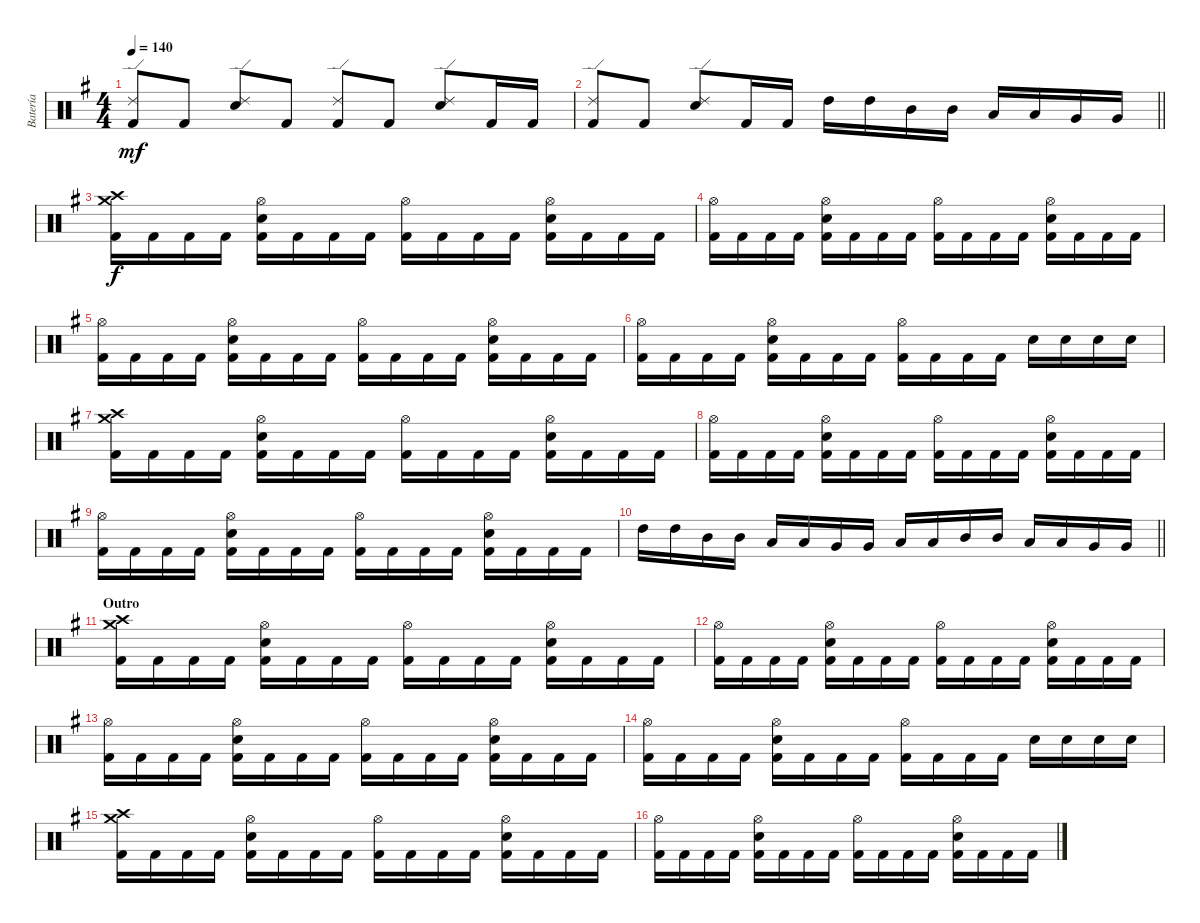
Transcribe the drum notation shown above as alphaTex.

\track ("Batería" "Batería") {instrument percussion}
\staff {score}
\articulation defaults
\ts (4 4)
\tempo 140
\clef neutral
\ks g
("Ride (edge) 2" "Kick (hit) 2").8{dy mf} "Kick (hit) 2".8 ("Ride (edge) 2" "Snare (hit) 2").8 "Kick (hit) 2".8 ("Ride (edge) 2" "Kick (hit) 2").8 "Kick (hit) 2".8 ("Ride (edge) 2" "Snare (hit) 2").8 "Kick (hit) 2".16 "Kick (hit) 2".16 |
\barLineRight lightlight
("Ride (edge) 2" "Kick (hit) 2").8 "Kick (hit) 2".8 ("Ride (edge) 2" "Snare (hit) 2").8 "Kick (hit) 2".16 "Kick (hit) 2".16 "High Tom (hit)".16 "High Tom (hit)".16 "Mid Tom (hit)".16 "Mid Tom (hit)".16 "Low Tom (hit)".16 "Low Tom (hit)".16 "Very Low Tom (hit)".16 "Very Low Tom (hit)".16 |
\section ("" "")
("Crash medium (hit)" "Crash high (hit)" "Kick (hit) 2").16{dy f} "Kick (hit) 2".16 "Kick (hit) 2".16 "Kick (hit) 2".16 ("Hi-Hat (open)" "Snare (hit) 2" "Kick (hit) 2").16 "Kick (hit) 2".16 "Kick (hit) 2".16 "Kick (hit) 2".16 ("Hi-Hat (open)" "Kick (hit) 2").16 "Kick (hit) 2".16 "Kick (hit) 2".16 "Kick (hit) 2".16 ("Hi-Hat (open)" "Snare (hit) 2" "Kick (hit) 2").16 "Kick (hit) 2".16 "Kick (hit) 2".16 "Kick (hit) 2".16 |
("Hi-Hat (open)" "Kick (hit) 2").16 "Kick (hit) 2".16 "Kick (hit) 2".16 "Kick (hit) 2".16 ("Hi-Hat (open)" "Snare (hit) 2" "Kick (hit) 2").16 "Kick (hit) 2".16 "Kick (hit) 2".16 "Kick (hit) 2".16 ("Hi-Hat (open)" "Kick (hit) 2").16 "Kick (hit) 2".16 "Kick (hit) 2".16 "Kick (hit) 2".16 ("Hi-Hat (open)" "Snare (hit) 2" "Kick (hit) 2").16 "Kick (hit) 2".16 "Kick (hit) 2".16 "Kick (hit) 2".16 |
("Hi-Hat (open)" "Kick (hit) 2").16 "Kick (hit) 2".16 "Kick (hit) 2".16 "Kick (hit) 2".16 ("Hi-Hat (open)" "Snare (hit) 2" "Kick (hit) 2").16 "Kick (hit) 2".16 "Kick (hit) 2".16 "Kick (hit) 2".16 ("Hi-Hat (open)" "Kick (hit) 2").16 "Kick (hit) 2".16 "Kick (hit) 2".16 "Kick (hit) 2".16 ("Hi-Hat (open)" "Snare (hit) 2" "Kick (hit) 2").16 "Kick (hit) 2".16 "Kick (hit) 2".16 "Kick (hit) 2".16 |
("Hi-Hat (open)" "Kick (hit) 2").16 "Kick (hit) 2".16 "Kick (hit) 2".16 "Kick (hit) 2".16 ("Hi-Hat (open)" "Snare (hit) 2" "Kick (hit) 2").16 "Kick (hit) 2".16 "Kick (hit) 2".16 "Kick (hit) 2".16 ("Hi-Hat (open)" "Kick (hit) 2").16 "Kick (hit) 2".16 "Kick (hit) 2".16 "Kick (hit) 2".16 "Snare (hit) 2".16 "Snare (hit) 2".16 "Snare (hit) 2".16 "Snare (hit) 2".16 |
("Crash medium (hit)" "Crash high (hit)" "Kick (hit) 2").16 "Kick (hit) 2".16 "Kick (hit) 2".16 "Kick (hit) 2".16 ("Hi-Hat (open)" "Snare (hit) 2" "Kick (hit) 2").16 "Kick (hit) 2".16 "Kick (hit) 2".16 "Kick (hit) 2".16 ("Hi-Hat (open)" "Kick (hit) 2").16 "Kick (hit) 2".16 "Kick (hit) 2".16 "Kick (hit) 2".16 ("Hi-Hat (open)" "Snare (hit) 2" "Kick (hit) 2").16 "Kick (hit) 2".16 "Kick (hit) 2".16 "Kick (hit) 2".16 |
("Hi-Hat (open)" "Kick (hit) 2").16 "Kick (hit) 2".16 "Kick (hit) 2".16 "Kick (hit) 2".16 ("Hi-Hat (open)" "Snare (hit) 2" "Kick (hit) 2").16 "Kick (hit) 2".16 "Kick (hit) 2".16 "Kick (hit) 2".16 ("Hi-Hat (open)" "Kick (hit) 2").16 "Kick (hit) 2".16 "Kick (hit) 2".16 "Kick (hit) 2".16 ("Hi-Hat (open)" "Snare (hit) 2" "Kick (hit) 2").16 "Kick (hit) 2".16 "Kick (hit) 2".16 "Kick (hit) 2".16 |
("Hi-Hat (open)" "Kick (hit) 2").16 "Kick (hit) 2".16 "Kick (hit) 2".16 "Kick (hit) 2".16 ("Hi-Hat (open)" "Snare (hit) 2" "Kick (hit) 2").16 "Kick (hit) 2".16 "Kick (hit) 2".16 "Kick (hit) 2".16 ("Hi-Hat (open)" "Kick (hit) 2").16 "Kick (hit) 2".16 "Kick (hit) 2".16 "Kick (hit) 2".16 ("Hi-Hat (open)" "Snare (hit) 2" "Kick (hit) 2").16 "Kick (hit) 2".16 "Kick (hit) 2".16 "Kick (hit) 2".16 |
\barLineRight lightlight "High Tom (hit)".16 "High Tom (hit)".16 "Mid Tom (hit)".16 "Mid Tom (hit)".16 "Low Tom (hit)".16 "Low Tom (hit)".16 "Very Low Tom (hit)".16 "Very Low Tom (hit)".16 "Low Floor Tom (hit)".16 "Low Floor Tom (hit)".16 "Mid Tom (hit)".16 "Mid Tom (hit)".16 "Low Tom (hit)".16 "Low Tom (hit)".16 "Very Low Tom (hit)".16 "Very Low Tom (hit)".16
|
\section ("" "Outro")
("Crash medium (hit)" "Crash high (hit)" "Kick (hit) 2").16 "Kick (hit) 2".16 "Kick (hit) 2".16 "Kick (hit) 2".16 ("Hi-Hat (open)" "Snare (hit) 2" "Kick (hit) 2").16 "Kick (hit) 2".16 "Kick (hit) 2".16 "Kick (hit) 2".16 ("Hi-Hat (open)" "Kick (hit) 2").16 "Kick (hit) 2".16 "Kick (hit) 2".16 "Kick (hit) 2".16 ("Hi-Hat (open)" "Snare (hit) 2" "Kick (hit) 2").16 "Kick (hit) 2".16 "Kick (hit) 2".16 "Kick (hit) 2".16 |
("Hi-Hat (open)" "Kick (hit) 2").16 "Kick (hit) 2".16 "Kick (hit) 2".16 "Kick (hit) 2".16 ("Hi-Hat (open)" "Snare (hit) 2" "Kick (hit) 2").16 "Kick (hit) 2".16 "Kick (hit) 2".16 "Kick (hit) 2".16 ("Hi-Hat (open)" "Kick (hit) 2").16 "Kick (hit) 2".16 "Kick (hit) 2".16 "Kick (hit) 2".16 ("Hi-Hat (open)" "Snare (hit) 2" "Kick (hit) 2").16 "Kick (hit) 2".16 "Kick (hit) 2".16 "Kick (hit) 2".16 |
("Hi-Hat (open)" "Kick (hit) 2").16 "Kick (hit) 2".16 "Kick (hit) 2".16 "Kick (hit) 2".16 ("Hi-Hat (open)" "Snare (hit) 2" "Kick (hit) 2").16 "Kick (hit) 2".16 "Kick (hit) 2".16 "Kick (hit) 2".16 ("Hi-Hat (open)" "Kick (hit) 2").16 "Kick (hit) 2".16 "Kick (hit) 2".16 "Kick (hit) 2".16 ("Hi-Hat (open)" "Snare (hit) 2" "Kick (hit) 2").16 "Kick (hit) 2".16 "Kick (hit) 2".16 "Kick (hit) 2".16 |
("Hi-Hat (open)" "Kick (hit) 2").16 "Kick (hit) 2".16 "Kick (hit) 2".16 "Kick (hit) 2".16 ("Hi-Hat (open)" "Snare (hit) 2" "Kick (hit) 2").16 "Kick (hit) 2".16 "Kick (hit) 2".16 "Kick (hit) 2".16 ("Hi-Hat (open)" "Kick (hit) 2").16 "Kick (hit) 2".16 "Kick (hit) 2".16 "Kick (hit) 2".16 "Snare (hit) 2".16 "Snare (hit) 2".16 "Snare (hit) 2".16 "Snare (hit) 2".16 |
("Crash medium (hit)" "Crash high (hit)" "Kick (hit) 2").16 "Kick (hit) 2".16 "Kick (hit) 2".16 "Kick (hit) 2".16 ("Hi-Hat (open)" "Snare (hit) 2" "Kick (hit) 2").16 "Kick (hit) 2".16 "Kick (hit) 2".16 "Kick (hit) 2".16 ("Hi-Hat (open)" "Kick (hit) 2").16 "Kick (hit) 2".16 "Kick (hit) 2".16 "Kick (hit) 2".16 ("Hi-Hat (open)" "Snare (hit) 2" "Kick (hit) 2").16 "Kick (hit) 2".16 "Kick (hit) 2".16 "Kick (hit) 2".16 |
("Hi-Hat (open)" "Kick (hit) 2").16 "Kick (hit) 2".16 "Kick (hit) 2".16 "Kick (hit) 2".16 ("Hi-Hat (open)" "Snare (hit) 2" "Kick (hit) 2").16 "Kick (hit) 2".16 "Kick (hit) 2".16 "Kick (hit) 2".16 ("Hi-Hat (open)" "Kick (hit) 2").16 "Kick (hit) 2".16 "Kick (hit) 2".16 "Kick (hit) 2".16 ("Hi-Hat (open)" "Snare (hit) 2" "Kick (hit) 2").16 "Kick (hit) 2".16 "Kick (hit) 2".16 "Kick (hit) 2".16
